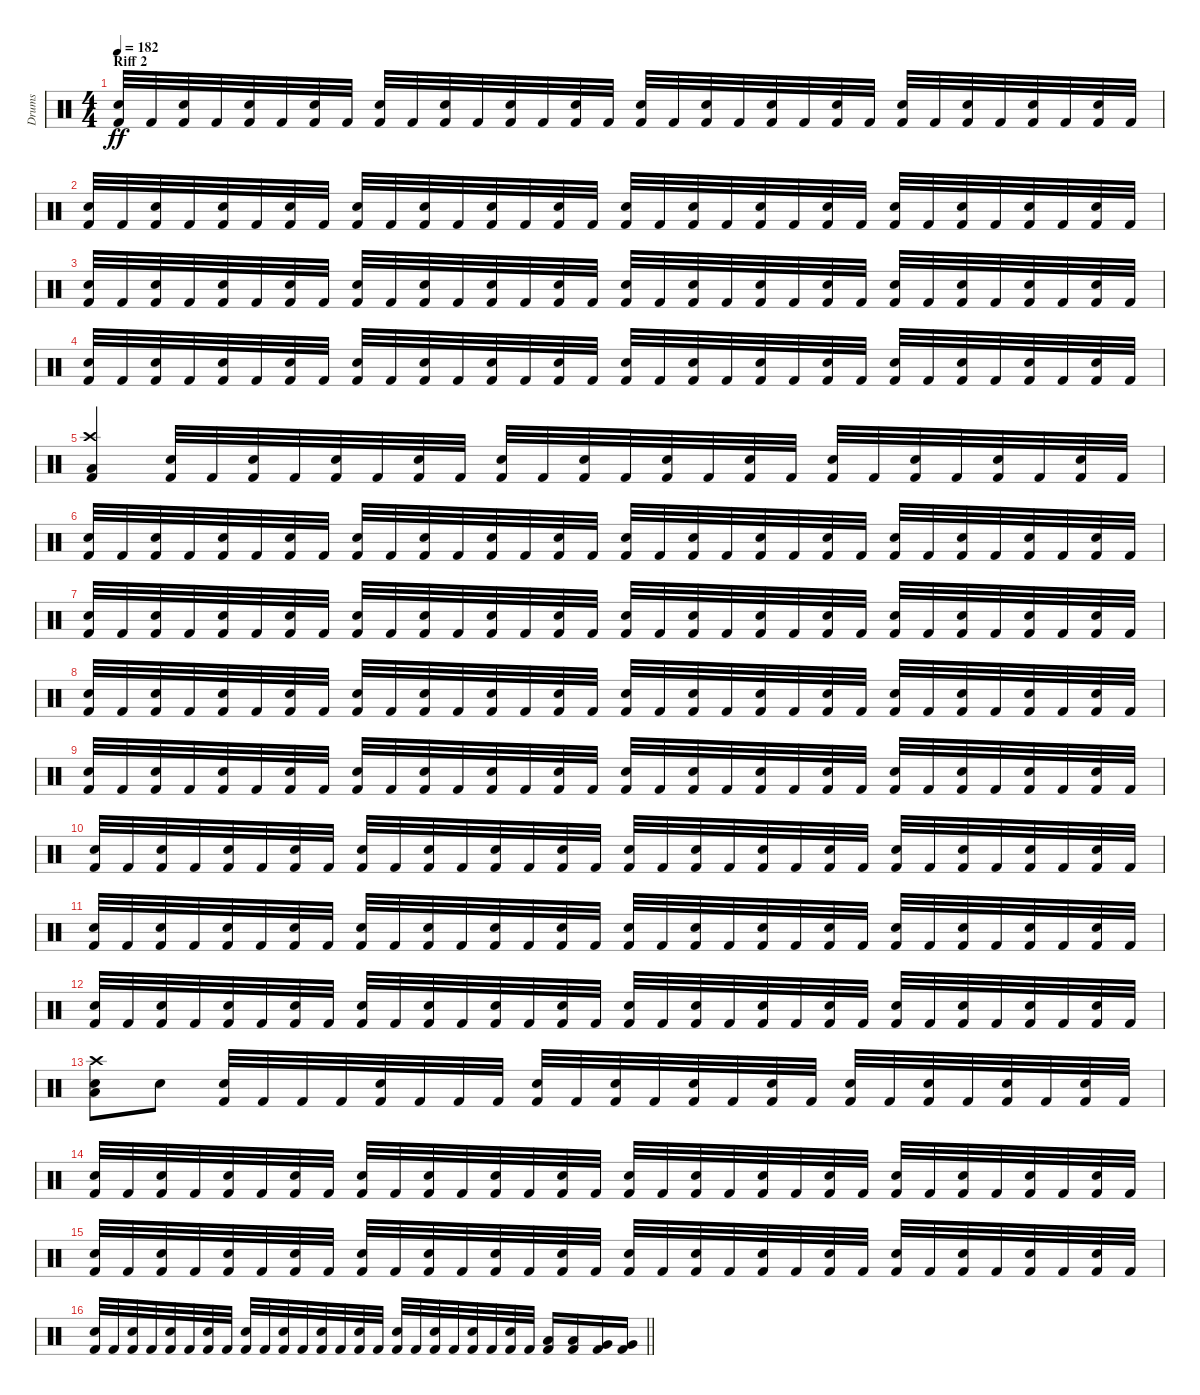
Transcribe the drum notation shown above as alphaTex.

\track ("Drums" "Drums") {instrument percussion}
\staff {score}
\articulation defaults
\ts (4 4)
\section ("" "Riff 2")
\tempo 182
\clef neutral
\ks c
("Kick (hit) 2" "Snare (hit) 2").32{dy ff} "Kick (hit) 2".32 ("Kick (hit) 2" "Snare (hit) 2").32 "Kick (hit) 2".32 ("Kick (hit) 2" "Snare (hit) 2").32 "Kick (hit) 2".32 ("Kick (hit) 2" "Snare (hit) 2").32 "Kick (hit) 2".32 ("Kick (hit) 2" "Snare (hit) 2").32 "Kick (hit) 2".32 ("Kick (hit) 2" "Snare (hit) 2").32 "Kick (hit) 2".32 ("Kick (hit) 2" "Snare (hit) 2").32 "Kick (hit) 2".32 ("Kick (hit) 2" "Snare (hit) 2").32 "Kick (hit) 2".32 ("Kick (hit) 2" "Snare (hit) 2").32 "Kick (hit) 2".32 ("Kick (hit) 2" "Snare (hit) 2").32 "Kick (hit) 2".32 ("Kick (hit) 2" "Snare (hit) 2").32 "Kick (hit) 2".32 ("Kick (hit) 2" "Snare (hit) 2").32 "Kick (hit) 2".32 ("Kick (hit) 2" "Snare (hit) 2").32 "Kick (hit) 2".32 ("Kick (hit) 2" "Snare (hit) 2").32 "Kick (hit) 2".32 ("Kick (hit) 2" "Snare (hit) 2").32 "Kick (hit) 2".32 ("Kick (hit) 2" "Snare (hit) 2").32 "Kick (hit) 2".32 |
("Kick (hit) 2" "Snare (hit) 2").32 "Kick (hit) 2".32 ("Kick (hit) 2" "Snare (hit) 2").32 "Kick (hit) 2".32 ("Kick (hit) 2" "Snare (hit) 2").32 "Kick (hit) 2".32 ("Kick (hit) 2" "Snare (hit) 2").32 "Kick (hit) 2".32 ("Kick (hit) 2" "Snare (hit) 2").32 "Kick (hit) 2".32 ("Kick (hit) 2" "Snare (hit) 2").32 "Kick (hit) 2".32 ("Kick (hit) 2" "Snare (hit) 2").32 "Kick (hit) 2".32 ("Kick (hit) 2" "Snare (hit) 2").32 "Kick (hit) 2".32 ("Kick (hit) 2" "Snare (hit) 2").32 "Kick (hit) 2".32 ("Kick (hit) 2" "Snare (hit) 2").32 "Kick (hit) 2".32 ("Kick (hit) 2" "Snare (hit) 2").32 "Kick (hit) 2".32 ("Kick (hit) 2" "Snare (hit) 2").32 "Kick (hit) 2".32 ("Kick (hit) 2" "Snare (hit) 2").32 "Kick (hit) 2".32 ("Kick (hit) 2" "Snare (hit) 2").32 "Kick (hit) 2".32 ("Kick (hit) 2" "Snare (hit) 2").32 "Kick (hit) 2".32 ("Kick (hit) 2" "Snare (hit) 2").32 "Kick (hit) 2".32 |
("Kick (hit) 2" "Snare (hit) 2").32 "Kick (hit) 2".32 ("Kick (hit) 2" "Snare (hit) 2").32 "Kick (hit) 2".32 ("Kick (hit) 2" "Snare (hit) 2").32 "Kick (hit) 2".32 ("Kick (hit) 2" "Snare (hit) 2").32 "Kick (hit) 2".32 ("Kick (hit) 2" "Snare (hit) 2").32 "Kick (hit) 2".32 ("Kick (hit) 2" "Snare (hit) 2").32 "Kick (hit) 2".32 ("Kick (hit) 2" "Snare (hit) 2").32 "Kick (hit) 2".32 ("Kick (hit) 2" "Snare (hit) 2").32 "Kick (hit) 2".32 ("Kick (hit) 2" "Snare (hit) 2").32 "Kick (hit) 2".32 ("Kick (hit) 2" "Snare (hit) 2").32 "Kick (hit) 2".32 ("Kick (hit) 2" "Snare (hit) 2").32 "Kick (hit) 2".32 ("Kick (hit) 2" "Snare (hit) 2").32 "Kick (hit) 2".32 ("Kick (hit) 2" "Snare (hit) 2").32 "Kick (hit) 2".32 ("Kick (hit) 2" "Snare (hit) 2").32 "Kick (hit) 2".32 ("Kick (hit) 2" "Snare (hit) 2").32 "Kick (hit) 2".32 ("Kick (hit) 2" "Snare (hit) 2").32 "Kick (hit) 2".32 |
("Kick (hit) 2" "Snare (hit) 2").32 "Kick (hit) 2".32 ("Kick (hit) 2" "Snare (hit) 2").32 "Kick (hit) 2".32 ("Kick (hit) 2" "Snare (hit) 2").32 "Kick (hit) 2".32 ("Kick (hit) 2" "Snare (hit) 2").32 "Kick (hit) 2".32 ("Kick (hit) 2" "Snare (hit) 2").32 "Kick (hit) 2".32 ("Kick (hit) 2" "Snare (hit) 2").32 "Kick (hit) 2".32 ("Kick (hit) 2" "Snare (hit) 2").32 "Kick (hit) 2".32 ("Kick (hit) 2" "Snare (hit) 2").32 "Kick (hit) 2".32 ("Kick (hit) 2" "Snare (hit) 2").32 "Kick (hit) 2".32 ("Kick (hit) 2" "Snare (hit) 2").32 "Kick (hit) 2".32 ("Kick (hit) 2" "Snare (hit) 2").32 "Kick (hit) 2".32 ("Kick (hit) 2" "Snare (hit) 2").32 "Kick (hit) 2".32 ("Kick (hit) 2" "Snare (hit) 2").32 "Kick (hit) 2".32 ("Kick (hit) 2" "Snare (hit) 2").32 "Kick (hit) 2".32 ("Kick (hit) 2" "Snare (hit) 2").32 "Kick (hit) 2".32 ("Kick (hit) 2" "Snare (hit) 2").32 "Kick (hit) 2".32 |
("Crash high (hit)" "Kick (hit) 2" "Low Tom (hit)").4 ("Kick (hit) 2" "Snare (hit) 2").32 "Kick (hit) 2".32 ("Kick (hit) 2" "Snare (hit) 2").32 "Kick (hit) 2".32 ("Kick (hit) 2" "Snare (hit) 2").32 "Kick (hit) 2".32 ("Kick (hit) 2" "Snare (hit) 2").32 "Kick (hit) 2".32 ("Kick (hit) 2" "Snare (hit) 2").32 "Kick (hit) 2".32 ("Kick (hit) 2" "Snare (hit) 2").32 "Kick (hit) 2".32 ("Kick (hit) 2" "Snare (hit) 2").32 "Kick (hit) 2".32 ("Kick (hit) 2" "Snare (hit) 2").32 "Kick (hit) 2".32 ("Kick (hit) 2" "Snare (hit) 2").32 "Kick (hit) 2".32 ("Kick (hit) 2" "Snare (hit) 2").32 "Kick (hit) 2".32 ("Kick (hit) 2" "Snare (hit) 2").32 "Kick (hit) 2".32 ("Kick (hit) 2" "Snare (hit) 2").32 "Kick (hit) 2".32 |
("Kick (hit) 2" "Snare (hit) 2").32 "Kick (hit) 2".32 ("Kick (hit) 2" "Snare (hit) 2").32 "Kick (hit) 2".32 ("Kick (hit) 2" "Snare (hit) 2").32 "Kick (hit) 2".32 ("Kick (hit) 2" "Snare (hit) 2").32 "Kick (hit) 2".32 ("Kick (hit) 2" "Snare (hit) 2").32 "Kick (hit) 2".32 ("Kick (hit) 2" "Snare (hit) 2").32 "Kick (hit) 2".32 ("Kick (hit) 2" "Snare (hit) 2").32 "Kick (hit) 2".32 ("Kick (hit) 2" "Snare (hit) 2").32 "Kick (hit) 2".32 ("Kick (hit) 2" "Snare (hit) 2").32 "Kick (hit) 2".32 ("Kick (hit) 2" "Snare (hit) 2").32 "Kick (hit) 2".32 ("Kick (hit) 2" "Snare (hit) 2").32 "Kick (hit) 2".32 ("Kick (hit) 2" "Snare (hit) 2").32 "Kick (hit) 2".32 ("Kick (hit) 2" "Snare (hit) 2").32 "Kick (hit) 2".32 ("Kick (hit) 2" "Snare (hit) 2").32 "Kick (hit) 2".32 ("Kick (hit) 2" "Snare (hit) 2").32 "Kick (hit) 2".32 ("Kick (hit) 2" "Snare (hit) 2").32 "Kick (hit) 2".32 |
("Kick (hit) 2" "Snare (hit) 2").32 "Kick (hit) 2".32 ("Kick (hit) 2" "Snare (hit) 2").32 "Kick (hit) 2".32 ("Kick (hit) 2" "Snare (hit) 2").32 "Kick (hit) 2".32 ("Kick (hit) 2" "Snare (hit) 2").32 "Kick (hit) 2".32 ("Kick (hit) 2" "Snare (hit) 2").32 "Kick (hit) 2".32 ("Kick (hit) 2" "Snare (hit) 2").32 "Kick (hit) 2".32 ("Kick (hit) 2" "Snare (hit) 2").32 "Kick (hit) 2".32 ("Kick (hit) 2" "Snare (hit) 2").32 "Kick (hit) 2".32 ("Kick (hit) 2" "Snare (hit) 2").32 "Kick (hit) 2".32 ("Kick (hit) 2" "Snare (hit) 2").32 "Kick (hit) 2".32 ("Kick (hit) 2" "Snare (hit) 2").32 "Kick (hit) 2".32 ("Kick (hit) 2" "Snare (hit) 2").32 "Kick (hit) 2".32 ("Kick (hit) 2" "Snare (hit) 2").32 "Kick (hit) 2".32 ("Kick (hit) 2" "Snare (hit) 2").32 "Kick (hit) 2".32 ("Kick (hit) 2" "Snare (hit) 2").32 "Kick (hit) 2".32 ("Kick (hit) 2" "Snare (hit) 2").32 "Kick (hit) 2".32 |
("Kick (hit) 2" "Snare (hit) 2").32 "Kick (hit) 2".32 ("Kick (hit) 2" "Snare (hit) 2").32 "Kick (hit) 2".32 ("Kick (hit) 2" "Snare (hit) 2").32 "Kick (hit) 2".32 ("Kick (hit) 2" "Snare (hit) 2").32 "Kick (hit) 2".32 ("Kick (hit) 2" "Snare (hit) 2").32 "Kick (hit) 2".32 ("Kick (hit) 2" "Snare (hit) 2").32 "Kick (hit) 2".32 ("Kick (hit) 2" "Snare (hit) 2").32 "Kick (hit) 2".32 ("Kick (hit) 2" "Snare (hit) 2").32 "Kick (hit) 2".32 ("Kick (hit) 2" "Snare (hit) 2").32 "Kick (hit) 2".32 ("Kick (hit) 2" "Snare (hit) 2").32 "Kick (hit) 2".32 ("Kick (hit) 2" "Snare (hit) 2").32 "Kick (hit) 2".32 ("Kick (hit) 2" "Snare (hit) 2").32 "Kick (hit) 2".32 ("Kick (hit) 2" "Snare (hit) 2").32 "Kick (hit) 2".32 ("Kick (hit) 2" "Snare (hit) 2").32 "Kick (hit) 2".32 ("Kick (hit) 2" "Snare (hit) 2").32 "Kick (hit) 2".32 ("Kick (hit) 2" "Snare (hit) 2").32 "Kick (hit) 2".32 |
("Kick (hit) 2" "Snare (hit) 2").32 "Kick (hit) 2".32 ("Kick (hit) 2" "Snare (hit) 2").32 "Kick (hit) 2".32 ("Kick (hit) 2" "Snare (hit) 2").32 "Kick (hit) 2".32 ("Kick (hit) 2" "Snare (hit) 2").32 "Kick (hit) 2".32 ("Kick (hit) 2" "Snare (hit) 2").32 "Kick (hit) 2".32 ("Kick (hit) 2" "Snare (hit) 2").32 "Kick (hit) 2".32 ("Kick (hit) 2" "Snare (hit) 2").32 "Kick (hit) 2".32 ("Kick (hit) 2" "Snare (hit) 2").32 "Kick (hit) 2".32 ("Kick (hit) 2" "Snare (hit) 2").32 "Kick (hit) 2".32 ("Kick (hit) 2" "Snare (hit) 2").32 "Kick (hit) 2".32 ("Kick (hit) 2" "Snare (hit) 2").32 "Kick (hit) 2".32 ("Kick (hit) 2" "Snare (hit) 2").32 "Kick (hit) 2".32 ("Kick (hit) 2" "Snare (hit) 2").32 "Kick (hit) 2".32 ("Kick (hit) 2" "Snare (hit) 2").32 "Kick (hit) 2".32 ("Kick (hit) 2" "Snare (hit) 2").32 "Kick (hit) 2".32 ("Kick (hit) 2" "Snare (hit) 2").32 "Kick (hit) 2".32 |
("Kick (hit) 2" "Snare (hit) 2").32 "Kick (hit) 2".32 ("Kick (hit) 2" "Snare (hit) 2").32 "Kick (hit) 2".32 ("Kick (hit) 2" "Snare (hit) 2").32 "Kick (hit) 2".32 ("Kick (hit) 2" "Snare (hit) 2").32 "Kick (hit) 2".32 ("Kick (hit) 2" "Snare (hit) 2").32 "Kick (hit) 2".32 ("Kick (hit) 2" "Snare (hit) 2").32 "Kick (hit) 2".32 ("Kick (hit) 2" "Snare (hit) 2").32 "Kick (hit) 2".32 ("Kick (hit) 2" "Snare (hit) 2").32 "Kick (hit) 2".32 ("Kick (hit) 2" "Snare (hit) 2").32 "Kick (hit) 2".32 ("Kick (hit) 2" "Snare (hit) 2").32 "Kick (hit) 2".32 ("Kick (hit) 2" "Snare (hit) 2").32 "Kick (hit) 2".32 ("Kick (hit) 2" "Snare (hit) 2").32 "Kick (hit) 2".32 ("Kick (hit) 2" "Snare (hit) 2").32 "Kick (hit) 2".32 ("Kick (hit) 2" "Snare (hit) 2").32 "Kick (hit) 2".32 ("Kick (hit) 2" "Snare (hit) 2").32 "Kick (hit) 2".32 ("Kick (hit) 2" "Snare (hit) 2").32 "Kick (hit) 2".32 |
("Kick (hit) 2" "Snare (hit) 2").32 "Kick (hit) 2".32 ("Kick (hit) 2" "Snare (hit) 2").32 "Kick (hit) 2".32 ("Kick (hit) 2" "Snare (hit) 2").32 "Kick (hit) 2".32 ("Kick (hit) 2" "Snare (hit) 2").32 "Kick (hit) 2".32 ("Kick (hit) 2" "Snare (hit) 2").32 "Kick (hit) 2".32 ("Kick (hit) 2" "Snare (hit) 2").32 "Kick (hit) 2".32 ("Kick (hit) 2" "Snare (hit) 2").32 "Kick (hit) 2".32 ("Kick (hit) 2" "Snare (hit) 2").32 "Kick (hit) 2".32 ("Kick (hit) 2" "Snare (hit) 2").32 "Kick (hit) 2".32 ("Kick (hit) 2" "Snare (hit) 2").32 "Kick (hit) 2".32 ("Kick (hit) 2" "Snare (hit) 2").32 "Kick (hit) 2".32 ("Kick (hit) 2" "Snare (hit) 2").32 "Kick (hit) 2".32 ("Kick (hit) 2" "Snare (hit) 2").32 "Kick (hit) 2".32 ("Kick (hit) 2" "Snare (hit) 2").32 "Kick (hit) 2".32 ("Kick (hit) 2" "Snare (hit) 2").32 "Kick (hit) 2".32 ("Kick (hit) 2" "Snare (hit) 2").32 "Kick (hit) 2".32 |
("Kick (hit) 2" "Snare (hit) 2").32 "Kick (hit) 2".32 ("Kick (hit) 2" "Snare (hit) 2").32 "Kick (hit) 2".32 ("Kick (hit) 2" "Snare (hit) 2").32 "Kick (hit) 2".32 ("Kick (hit) 2" "Snare (hit) 2").32 "Kick (hit) 2".32 ("Kick (hit) 2" "Snare (hit) 2").32 "Kick (hit) 2".32 ("Kick (hit) 2" "Snare (hit) 2").32 "Kick (hit) 2".32 ("Kick (hit) 2" "Snare (hit) 2").32 "Kick (hit) 2".32 ("Kick (hit) 2" "Snare (hit) 2").32 "Kick (hit) 2".32 ("Kick (hit) 2" "Snare (hit) 2").32 "Kick (hit) 2".32 ("Kick (hit) 2" "Snare (hit) 2").32 "Kick (hit) 2".32 ("Kick (hit) 2" "Snare (hit) 2").32 "Kick (hit) 2".32 ("Kick (hit) 2" "Snare (hit) 2").32 "Kick (hit) 2".32 ("Kick (hit) 2" "Snare (hit) 2").32 "Kick (hit) 2".32 ("Kick (hit) 2" "Snare (hit) 2").32 "Kick (hit) 2".32 ("Kick (hit) 2" "Snare (hit) 2").32 "Kick (hit) 2".32 ("Kick (hit) 2" "Snare (hit) 2").32 "Kick (hit) 2".32 |
("Crash high (hit)" "Snare (hit) 2" "Low Tom (hit)").8 "Snare (hit) 2".8 ("Kick (hit) 2" "Snare (hit) 2").32 "Kick (hit) 2".32 "Kick (hit) 2".32 "Kick (hit) 2".32 ("Kick (hit) 2" "Snare (hit) 2").32 "Kick (hit) 2".32 "Kick (hit) 2".32 "Kick (hit) 2".32 ("Kick (hit) 2" "Snare (hit) 2").32 "Kick (hit) 2".32 ("Kick (hit) 2" "Snare (hit) 2").32 "Kick (hit) 2".32 ("Kick (hit) 2" "Snare (hit) 2").32 "Kick (hit) 2".32 ("Kick (hit) 2" "Snare (hit) 2").32 "Kick (hit) 2".32 ("Kick (hit) 2" "Snare (hit) 2").32 "Kick (hit) 2".32 ("Kick (hit) 2" "Snare (hit) 2").32 "Kick (hit) 2".32 ("Kick (hit) 2" "Snare (hit) 2").32 "Kick (hit) 2".32 ("Kick (hit) 2" "Snare (hit) 2").32 "Kick (hit) 2".32 |
("Kick (hit) 2" "Snare (hit) 2").32 "Kick (hit) 2".32 ("Kick (hit) 2" "Snare (hit) 2").32 "Kick (hit) 2".32 ("Kick (hit) 2" "Snare (hit) 2").32 "Kick (hit) 2".32 ("Kick (hit) 2" "Snare (hit) 2").32 "Kick (hit) 2".32 ("Kick (hit) 2" "Snare (hit) 2").32 "Kick (hit) 2".32 ("Kick (hit) 2" "Snare (hit) 2").32 "Kick (hit) 2".32 ("Kick (hit) 2" "Snare (hit) 2").32 "Kick (hit) 2".32 ("Kick (hit) 2" "Snare (hit) 2").32 "Kick (hit) 2".32 ("Kick (hit) 2" "Snare (hit) 2").32 "Kick (hit) 2".32 ("Kick (hit) 2" "Snare (hit) 2").32 "Kick (hit) 2".32 ("Kick (hit) 2" "Snare (hit) 2").32 "Kick (hit) 2".32 ("Kick (hit) 2" "Snare (hit) 2").32 "Kick (hit) 2".32 ("Kick (hit) 2" "Snare (hit) 2").32 "Kick (hit) 2".32 ("Kick (hit) 2" "Snare (hit) 2").32 "Kick (hit) 2".32 ("Kick (hit) 2" "Snare (hit) 2").32 "Kick (hit) 2".32 ("Kick (hit) 2" "Snare (hit) 2").32 "Kick (hit) 2".32 |
("Kick (hit) 2" "Snare (hit) 2").32 "Kick (hit) 2".32 ("Kick (hit) 2" "Snare (hit) 2").32 "Kick (hit) 2".32 ("Kick (hit) 2" "Snare (hit) 2").32 "Kick (hit) 2".32 ("Kick (hit) 2" "Snare (hit) 2").32 "Kick (hit) 2".32 ("Kick (hit) 2" "Snare (hit) 2").32 "Kick (hit) 2".32 ("Kick (hit) 2" "Snare (hit) 2").32 "Kick (hit) 2".32 ("Kick (hit) 2" "Snare (hit) 2").32 "Kick (hit) 2".32 ("Kick (hit) 2" "Snare (hit) 2").32 "Kick (hit) 2".32 ("Kick (hit) 2" "Snare (hit) 2").32 "Kick (hit) 2".32 ("Kick (hit) 2" "Snare (hit) 2").32 "Kick (hit) 2".32 ("Kick (hit) 2" "Snare (hit) 2").32 "Kick (hit) 2".32 ("Kick (hit) 2" "Snare (hit) 2").32 "Kick (hit) 2".32 ("Kick (hit) 2" "Snare (hit) 2").32 "Kick (hit) 2".32 ("Kick (hit) 2" "Snare (hit) 2").32 "Kick (hit) 2".32 ("Kick (hit) 2" "Snare (hit) 2").32 "Kick (hit) 2".32 ("Kick (hit) 2" "Snare (hit) 2").32 "Kick (hit) 2".32 |
\barLineRight lightlight
("Kick (hit) 2" "Snare (hit) 2").32 "Kick (hit) 2".32 ("Kick (hit) 2" "Snare (hit) 2").32 "Kick (hit) 2".32 ("Kick (hit) 2" "Snare (hit) 2").32 "Kick (hit) 2".32 ("Kick (hit) 2" "Snare (hit) 2").32 "Kick (hit) 2".32 ("Kick (hit) 2" "Snare (hit) 2").32 "Kick (hit) 2".32 ("Kick (hit) 2" "Snare (hit) 2").32 "Kick (hit) 2".32 ("Kick (hit) 2" "Snare (hit) 2").32 "Kick (hit) 2".32 ("Kick (hit) 2" "Snare (hit) 2").32 "Kick (hit) 2".32 ("Kick (hit) 2" "Snare (hit) 2").32 "Kick (hit) 2".32 ("Kick (hit) 2" "Snare (hit) 2").32 "Kick (hit) 2".32 ("Kick (hit) 2" "Snare (hit) 2").32 "Kick (hit) 2".32 ("Kick (hit) 2" "Snare (hit) 2").32 "Kick (hit) 2".32 ("Kick (hit) 2" "Low Tom (hit)").16 ("Kick (hit) 2" "Low Tom (hit)").16 ("Kick (hit) 2" "Very Low Tom (hit)").16 ("Kick (hit) 2" "Very Low Tom (hit)").16
